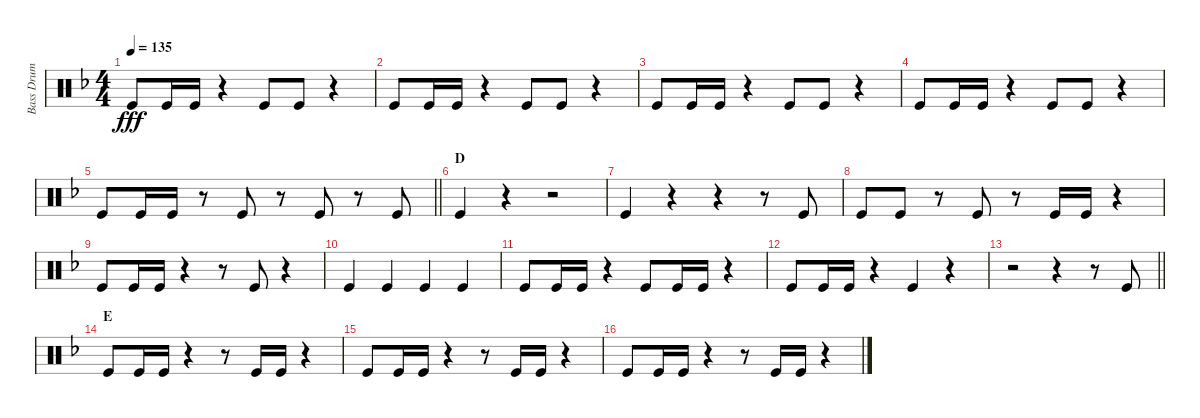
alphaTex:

\track ("Bass Drum" "Bass Drum") {instrument percussion}
\staff {score}
\articulation defaults
\ts (4 4)
\tempo 135
\clef neutral
\ks f "Kick (hit)".8{dy fff} "Kick (hit)".16 "Kick (hit)".16
r.4 "Kick (hit)".8 "Kick (hit)".8 r.4 |
"Kick (hit)".8 "Kick (hit)".16 "Kick (hit)".16 r.4 "Kick (hit)".8 "Kick (hit)".8 r.4 |
"Kick (hit)".8 "Kick (hit)".16 "Kick (hit)".16 r.4 "Kick (hit)".8 "Kick (hit)".8 r.4 |
"Kick (hit)".8 "Kick (hit)".16 "Kick (hit)".16 r.4 "Kick (hit)".8 "Kick (hit)".8 r.4 |
\barLineRight lightlight "Kick (hit)".8 "Kick (hit)".16 "Kick (hit)".16
r.8 "Kick (hit)".8 r.8 "Kick (hit)".8 r.8 "Kick (hit)".8 |
\section ("" "D")
"Kick (hit)".4 r.4 r.2 |
"Kick (hit)".4 r.4 r.4 r.8 "Kick (hit)".8 |
"Kick (hit)".8 "Kick (hit)".8 r.8 "Kick (hit)".8 r.8 "Kick (hit)".16 "Kick (hit)".16 r.4 |
"Kick (hit)".8 "Kick (hit)".16 "Kick (hit)".16 r.4 r.8 "Kick (hit)".8 r.4 |
"Kick (hit)".4 "Kick (hit)".4 "Kick (hit)".4 "Kick (hit)".4 |
"Kick (hit)".8 "Kick (hit)".16 "Kick (hit)".16 r.4 "Kick (hit)".8 "Kick (hit)".16 "Kick (hit)".16 r.4 |
"Kick (hit)".8 "Kick (hit)".16 "Kick (hit)".16 r.4 "Kick (hit)".4 r.4 |
\barLineRight lightlight
r.2 r.4 r.8 "Kick (hit)".8 |
\section ("" "E")
"Kick (hit)".8 "Kick (hit)".16 "Kick (hit)".16 r.4 r.8 "Kick (hit)".16 "Kick (hit)".16 r.4 |
"Kick (hit)".8 "Kick (hit)".16 "Kick (hit)".16 r.4 r.8 "Kick (hit)".16 "Kick (hit)".16 r.4 |
"Kick (hit)".8 "Kick (hit)".16 "Kick (hit)".16 r.4 r.8 "Kick (hit)".16 "Kick (hit)".16 r.4
